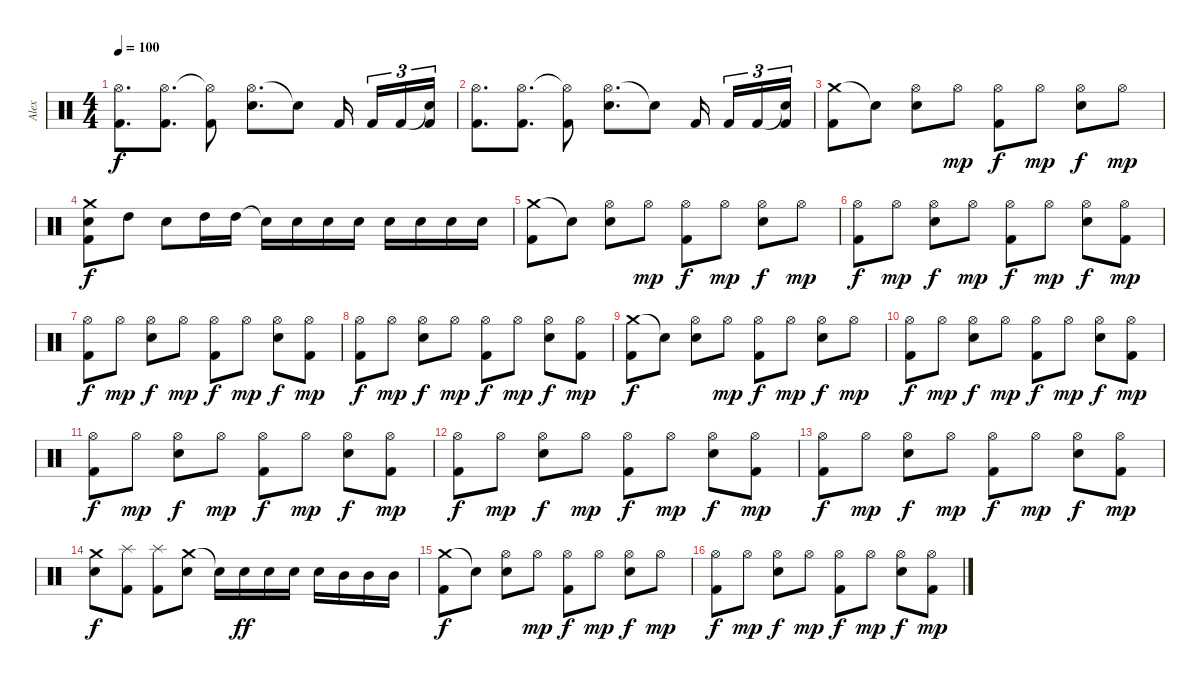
\track ("Alex" "Alex") {instrument percussion}
\staff {score}
\articulation defaults
\ts (4 4)
\tempo 100
\clef neutral
\ks c
("Hi-Hat (open)" "Kick (hit) 2").8{d dy f} ("Hi-Hat (open)" "Kick (hit) 2").8{d} ("Hi-Hat (open)"{t} "Kick (hit) 2").8 ("Hi-Hat (open)" "Electric Snare (hit)").8{d} "Snare (hit)"{t}.8 "Kick (hit) 2".16 "Kick (hit) 2".16{tu (3 2)} "Kick (hit) 2".16{tu (3 2)} ("Snare (hit)"{t} "Kick (hit) 2").16{tu (3 2)} |
("Hi-Hat (open)" "Kick (hit) 2").8{d} ("Hi-Hat (open)" "Kick (hit) 2").8{d} ("Hi-Hat (open)"{t} "Kick (hit) 2").8 ("Hi-Hat (open)" "Electric Snare (hit)").8{d} "Snare (hit)"{t}.8 "Kick (hit) 2".16 "Kick (hit) 2".16{tu (3 2)} "Kick (hit) 2".16{tu (3 2)} ("Snare (hit)"{t} "Kick (hit) 2").16{tu (3 2)} |
("Crash medium (hit)" "Kick (hit) 2").8 "Snare (hit)"{t}.8 ("Hi-Hat (open)" "Electric Snare (hit)").8 "Hi-Hat (open)".8{dy mp} ("Hi-Hat (open)" "Kick (hit) 2").8{dy f} "Hi-Hat (open)".8{dy mp} ("Hi-Hat (open)" "Electric Snare (hit)").8{dy f} "Hi-Hat (open)".8{dy mp} |
("Crash medium (hit)" "Electric Snare (hit)" "Kick (hit) 2").8{dy f} "High Tom (hit)".8 "Electric Snare (hit)".8 "High Tom (hit)".16 "High Tom (hit)".16 "Snare (hit)"{t}.16 "Electric Snare (hit)".16 "Electric Snare (hit)".16 "Electric Snare (hit)".16 "Electric Snare (hit)".16 "Electric Snare (hit)".16 "Electric Snare (hit)".16 "Electric Snare (hit)".16 |
("Crash medium (hit)" "Kick (hit) 2").8 "Snare (hit)"{t}.8 ("Hi-Hat (open)" "Electric Snare (hit)").8 "Hi-Hat (open)".8{dy mp} ("Hi-Hat (open)" "Kick (hit) 2").8{dy f} "Hi-Hat (open)".8{dy mp} ("Hi-Hat (open)" "Electric Snare (hit)").8{dy f} "Hi-Hat (open)".8{dy mp} |
("Hi-Hat (open)" "Kick (hit) 2").8{dy f} "Hi-Hat (open)".8{dy mp} ("Hi-Hat (open)" "Electric Snare (hit)").8{dy f} "Hi-Hat (open)".8{dy mp} ("Hi-Hat (open)" "Kick (hit) 2").8{dy f} "Hi-Hat (open)".8{dy mp} ("Hi-Hat (open)" "Electric Snare (hit)").8{dy f} ("Hi-Hat (open)" "Kick (hit) 2").8{dy mp} |
("Hi-Hat (open)" "Kick (hit) 2").8{dy f} "Hi-Hat (open)".8{dy mp} ("Hi-Hat (open)" "Electric Snare (hit)").8{dy f} "Hi-Hat (open)".8{dy mp} ("Hi-Hat (open)" "Kick (hit) 2").8{dy f} "Hi-Hat (open)".8{dy mp} ("Hi-Hat (open)" "Electric Snare (hit)").8{dy f} ("Hi-Hat (open)" "Kick (hit) 2").8{dy mp} |
("Hi-Hat (open)" "Kick (hit) 2").8{dy f} "Hi-Hat (open)".8{dy mp} ("Hi-Hat (open)" "Electric Snare (hit)").8{dy f} "Hi-Hat (open)".8{dy mp} ("Hi-Hat (open)" "Kick (hit) 2").8{dy f} "Hi-Hat (open)".8{dy mp} ("Hi-Hat (open)" "Electric Snare (hit)").8{dy f} ("Hi-Hat (open)" "Kick (hit) 2").8{dy mp} |
("Crash medium (hit)" "Kick (hit) 2").8{dy f} "Snare (hit)"{t}.8 ("Hi-Hat (open)" "Electric Snare (hit)").8 "Hi-Hat (open)".8{dy mp} ("Hi-Hat (open)" "Kick (hit) 2").8{dy f} "Hi-Hat (open)".8{dy mp} ("Hi-Hat (open)" "Electric Snare (hit)").8{dy f} "Hi-Hat (open)".8{dy mp} |
("Hi-Hat (open)" "Kick (hit) 2").8{dy f} "Hi-Hat (open)".8{dy mp} ("Hi-Hat (open)" "Electric Snare (hit)").8{dy f} "Hi-Hat (open)".8{dy mp} ("Hi-Hat (open)" "Kick (hit) 2").8{dy f} "Hi-Hat (open)".8{dy mp} ("Hi-Hat (open)" "Electric Snare (hit)").8{dy f} ("Hi-Hat (open)" "Kick (hit) 2").8{dy mp} |
("Hi-Hat (open)" "Kick (hit) 2").8{dy f} "Hi-Hat (open)".8{dy mp} ("Hi-Hat (open)" "Electric Snare (hit)").8{dy f} "Hi-Hat (open)".8{dy mp} ("Hi-Hat (open)" "Kick (hit) 2").8{dy f} "Hi-Hat (open)".8{dy mp} ("Hi-Hat (open)" "Electric Snare (hit)").8{dy f} ("Hi-Hat (open)" "Kick (hit) 2").8{dy mp} |
("Hi-Hat (open)" "Kick (hit) 2").8{dy f} "Hi-Hat (open)".8{dy mp} ("Hi-Hat (open)" "Electric Snare (hit)").8{dy f} "Hi-Hat (open)".8{dy mp} ("Hi-Hat (open)" "Kick (hit) 2").8{dy f} "Hi-Hat (open)".8{dy mp} ("Hi-Hat (open)" "Electric Snare (hit)").8{dy f} ("Hi-Hat (open)" "Kick (hit) 2").8{dy mp} |
("Hi-Hat (open)" "Kick (hit) 2").8{dy f} "Hi-Hat (open)".8{dy mp} ("Hi-Hat (open)" "Electric Snare (hit)").8{dy f} "Hi-Hat (open)".8{dy mp} ("Hi-Hat (open)" "Kick (hit) 2").8{dy f} "Hi-Hat (open)".8{dy mp} ("Hi-Hat (open)" "Electric Snare (hit)").8{dy f} ("Hi-Hat (open)" "Kick (hit) 2").8{dy mp} |
("Crash medium (hit)" "Electric Snare (hit)").8{dy f} ("Splash (hit)" "Kick (hit) 2").8 ("Splash (hit)" "Kick (hit) 2").8 ("Crash medium (hit)" "Electric Snare (hit)").8 "Snare (hit)"{t}.16 "Electric Snare (hit)".16{dy ff} "Electric Snare (hit)".16 "Electric Snare (hit)".16 "Electric Snare (hit)".16 "Mid Tom (hit)".16 "Mid Tom (hit)".16 "Mid Tom (hit)".16 |
("Crash medium (hit)" "Kick (hit) 2").8{dy f} "Snare (hit)"{t}.8 ("Hi-Hat (open)" "Electric Snare (hit)").8 "Hi-Hat (open)".8{dy mp} ("Hi-Hat (open)" "Kick (hit) 2").8{dy f} "Hi-Hat (open)".8{dy mp} ("Hi-Hat (open)" "Electric Snare (hit)").8{dy f} "Hi-Hat (open)".8{dy mp} |
("Hi-Hat (open)" "Kick (hit) 2").8{dy f} "Hi-Hat (open)".8{dy mp} ("Hi-Hat (open)" "Electric Snare (hit)").8{dy f} "Hi-Hat (open)".8{dy mp} ("Hi-Hat (open)" "Kick (hit) 2").8{dy f} "Hi-Hat (open)".8{dy mp} ("Hi-Hat (open)" "Electric Snare (hit)").8{dy f} ("Hi-Hat (open)" "Kick (hit) 2").8{dy mp}
